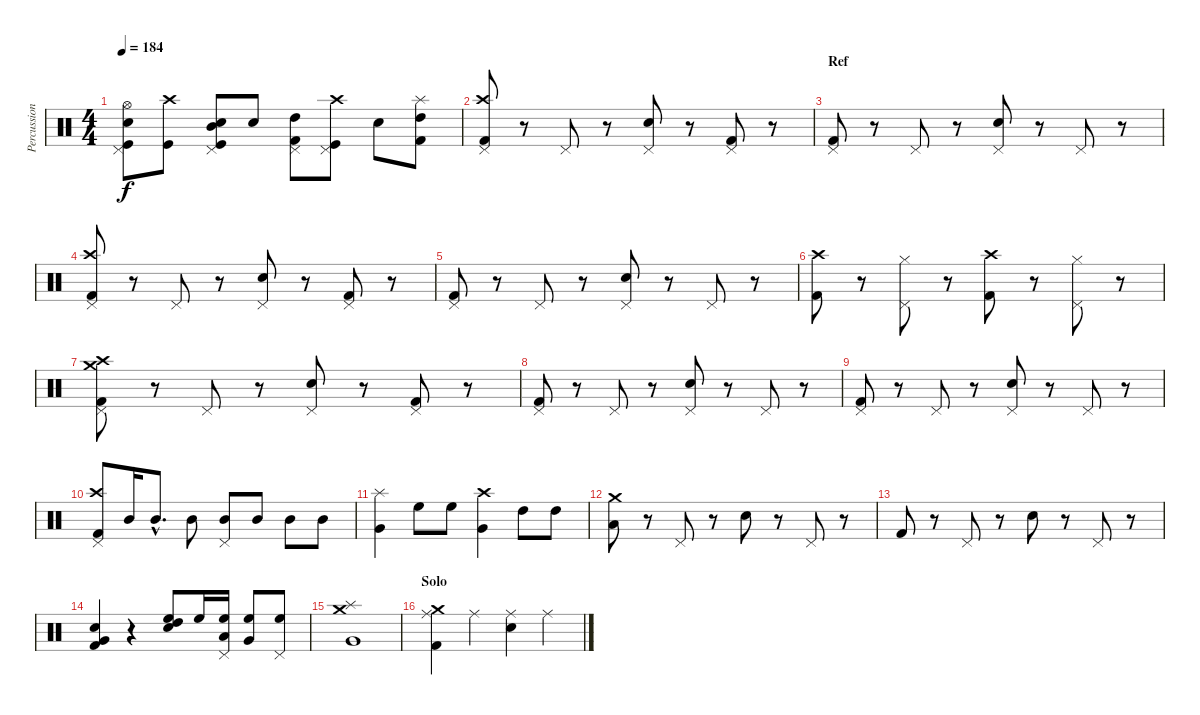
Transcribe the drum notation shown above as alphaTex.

\track ("Percussion" "Percussion") {instrument percussion}
\staff {score}
\articulation defaults
\ts (4 4)
\tempo 184
\clef neutral
\ks c
("Kick (hit)" "Snare (hit) 2" "Hi-Hat (open)" "Pedal Hi-Hat (hit)").8{dy f} ("Kick (hit)" "Crash high (hit)").8 ("Kick (hit)" "Snare (hit) 2" "Mid Tom (hit)" "Pedal Hi-Hat (hit)").8 "Snare (hit) 2".8 ("Kick (hit) 2" "High Tom (hit)" "Pedal Hi-Hat (hit)").8 ("Crash high (hit)" "Kick (hit)" "Pedal Hi-Hat (hit)").8 "Snare (hit) 2".8 ("Kick (hit) 2" "High Tom (hit)" "Splash (hit)").8 |
("Kick (hit) 2" "Crash high (hit)" "Pedal Hi-Hat (hit)").8 r.8 "Pedal Hi-Hat (hit)".8 r.8 ("Snare (hit) 2" "Pedal Hi-Hat (hit)").8 r.8 ("Kick (hit) 2" "Pedal Hi-Hat (hit)").8 r.8 |
\section ("" "Ref")
("Kick (hit) 2" "Pedal Hi-Hat (hit)").8 r.8 "Pedal Hi-Hat (hit)".8 r.8 ("Snare (hit) 2" "Pedal Hi-Hat (hit)").8 r.8 "Pedal Hi-Hat (hit)".8 r.8 |
("Kick (hit) 2" "Crash high (hit)" "Pedal Hi-Hat (hit)").8 r.8 "Pedal Hi-Hat (hit)".8 r.8 ("Snare (hit) 2" "Pedal Hi-Hat (hit)").8 r.8 ("Kick (hit) 2" "Pedal Hi-Hat (hit)").8 r.8 |
("Kick (hit) 2" "Pedal Hi-Hat (hit)").8 r.8 "Pedal Hi-Hat (hit)".8 r.8 ("Snare (hit) 2" "Pedal Hi-Hat (hit)").8 r.8 "Pedal Hi-Hat (hit)".8 r.8 |
("Kick (hit) 2" "Crash high (hit)").8 r.8 ("Pedal Hi-Hat (hit)" "Hi-Hat (closed)").8 r.8 ("Kick (hit) 2" "Crash high (hit)").8 r.8 ("Pedal Hi-Hat (hit)" "Hi-Hat (closed)").8 r.8 |
("Kick (hit) 2" "Crash medium (hit)" "Crash high (hit)" "Pedal Hi-Hat (hit)").8 r.8 "Pedal Hi-Hat (hit)".8 r.8 ("Snare (hit) 2" "Pedal Hi-Hat (hit)").8 r.8 ("Kick (hit) 2" "Pedal Hi-Hat (hit)").8 r.8 |
("Kick (hit) 2" "Pedal Hi-Hat (hit)").8 r.8 "Pedal Hi-Hat (hit)".8 r.8 ("Snare (hit) 2" "Pedal Hi-Hat (hit)").8 r.8 "Pedal Hi-Hat (hit)".8 r.8 |
("Kick (hit) 2" "Pedal Hi-Hat (hit)").8 r.8 "Pedal Hi-Hat (hit)".8 r.8 ("Snare (hit) 2" "Pedal Hi-Hat (hit)").8 r.8 "Pedal Hi-Hat (hit)".8 r.8 |
("Kick (hit) 2" "Pedal Hi-Hat (hit)" "Crash high (hit)").8 "Mid Tom (hit)".16 "Mid Tom (hit)"{hac}.8{d} "Mid Tom (hit)".8 ("Mid Tom (hit)" "Pedal Hi-Hat (hit)").8 "Mid Tom (hit)".8 "Mid Tom (hit)".8 "Mid Tom (hit)".8 |
("Very Low Tom (hit)" "Splash (hit)").4 "High Floor Tom (hit)".8 "High Floor Tom (hit)".8 ("Very Low Tom (hit)" "Crash high (hit)").4 "High Tom (hit)".8 "High Tom (hit)".8 |
("Low Floor Tom (hit)" "Crash medium (hit)").8 r.8 "Pedal Hi-Hat (hit)".8 r.8 "Snare (hit) 2".8 r.8 "Pedal Hi-Hat (hit)".8 r.8 |
"Kick (hit) 2".8 r.8 "Pedal Hi-Hat (hit)".8 r.8 "Snare (hit) 2".8 r.8 "Pedal Hi-Hat (hit)".8 r.8 |
("Kick (hit) 2" "Snare (hit) 2" "Very Low Tom (hit)").4 r.4 ("Snare (hit) 2" "High Tom (hit)" "High Floor Tom (hit)").8 "High Floor Tom (hit)".16 ("Low Tom (hit)" "Pedal Hi-Hat (hit)" "High Floor Tom (hit)").16 ("Very Low Tom (hit)" "High Floor Tom (hit)").8 ("Pedal Hi-Hat (hit)" "High Floor Tom (hit)").8 |
("Splash (hit)" "Very Low Tom (hit)" "Crash medium (hit)").1 |
\section ("" "Solo")
("Kick (hit) 2" "Crash medium (hit)" "Ride (middle)").4 "Ride (middle)".4 ("Snare (hit) 2" "Ride (middle)").4 "Ride (middle)".4
